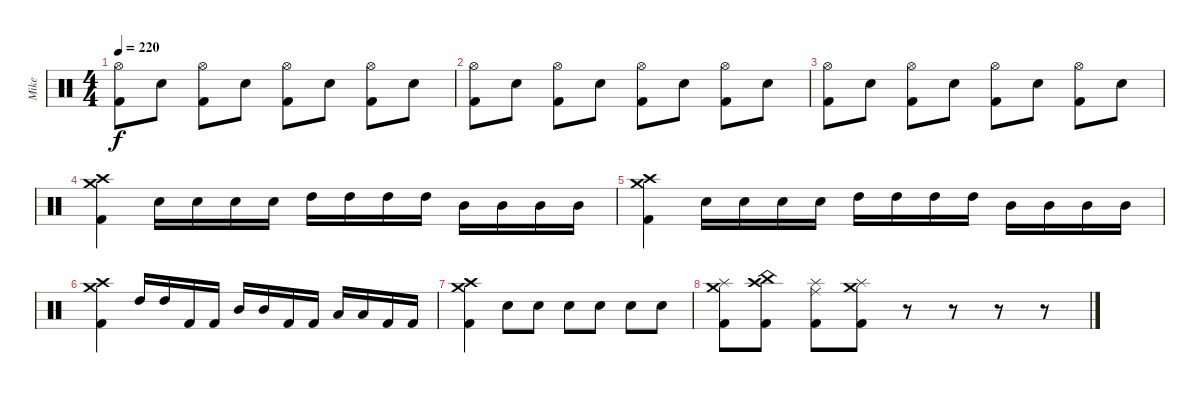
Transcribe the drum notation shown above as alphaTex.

\track ("Mike" "Mike") {instrument percussion}
\staff {score}
\articulation defaults
\ts (4 4)
\tempo 220
\clef neutral
\ks c
("Hi-Hat (open)" "Kick (hit) 2").8{dy f} "Electric Snare (hit)".8 ("Hi-Hat (open)" "Kick (hit) 2").8 "Electric Snare (hit)".8 ("Hi-Hat (open)" "Kick (hit) 2").8 "Electric Snare (hit)".8 ("Hi-Hat (open)" "Kick (hit) 2").8 "Electric Snare (hit)".8 |
("Hi-Hat (open)" "Kick (hit) 2").8 "Electric Snare (hit)".8 ("Hi-Hat (open)" "Kick (hit) 2").8 "Electric Snare (hit)".8 ("Hi-Hat (open)" "Kick (hit) 2").8 "Electric Snare (hit)".8 ("Hi-Hat (open)" "Kick (hit) 2").8 "Electric Snare (hit)".8 |
("Hi-Hat (open)" "Kick (hit) 2").8 "Electric Snare (hit)".8 ("Hi-Hat (open)" "Kick (hit) 2").8 "Electric Snare (hit)".8 ("Hi-Hat (open)" "Kick (hit) 2").8 "Electric Snare (hit)".8 ("Hi-Hat (open)" "Kick (hit) 2").8 "Electric Snare (hit)".8 |
("Crash medium (hit)" "Crash high (hit)" "Kick (hit) 2").4 "Electric Snare (hit)".16 "Electric Snare (hit)".16 "Electric Snare (hit)".16 "Electric Snare (hit)".16 "High Tom (hit)".16 "High Tom (hit)".16 "High Tom (hit)".16 "High Tom (hit)".16 "Mid Tom (hit)".16 "Mid Tom (hit)".16 "Mid Tom (hit)".16 "Mid Tom (hit)".16 |
("Crash medium (hit)" "Crash high (hit)" "Kick (hit) 2").4 "Electric Snare (hit)".16 "Electric Snare (hit)".16 "Electric Snare (hit)".16 "Electric Snare (hit)".16 "High Tom (hit)".16 "High Tom (hit)".16 "High Tom (hit)".16 "High Tom (hit)".16 "Mid Tom (hit)".16 "Mid Tom (hit)".16 "Mid Tom (hit)".16 "Mid Tom (hit)".16 |
("Crash medium (hit)" "Crash high (hit)" "Kick (hit) 2").4 "High Tom (hit)".16 "High Tom (hit)".16 "Kick (hit) 2".16 "Kick (hit) 2".16 "Mid Tom (hit)".16 "Mid Tom (hit)".16 "Kick (hit) 2".16 "Kick (hit) 2".16 "Low Tom (hit)".16 "Low Tom (hit)".16 "Kick (hit) 2".16 "Kick (hit) 2".16 |
("Crash medium (hit)" "Crash high (hit)" "Kick (hit) 2").4 "Electric Snare (hit)".8 "Electric Snare (hit)".8 "Electric Snare (hit)".8 "Electric Snare (hit)".8 "Electric Snare (hit)".8 "Electric Snare (hit)".8 |
("Crash medium (hit)" "Splash (hit)" "Kick (hit) 2").8 ("Crash high (hit)" "China (hit)" "Kick (hit) 2").8 ("Splash (hit)" "Ride (middle)" "Kick (hit) 2").8 ("Crash medium (hit)" "Splash (hit)" "Kick (hit) 2").8 r.8 r.8 r.8 r.8
